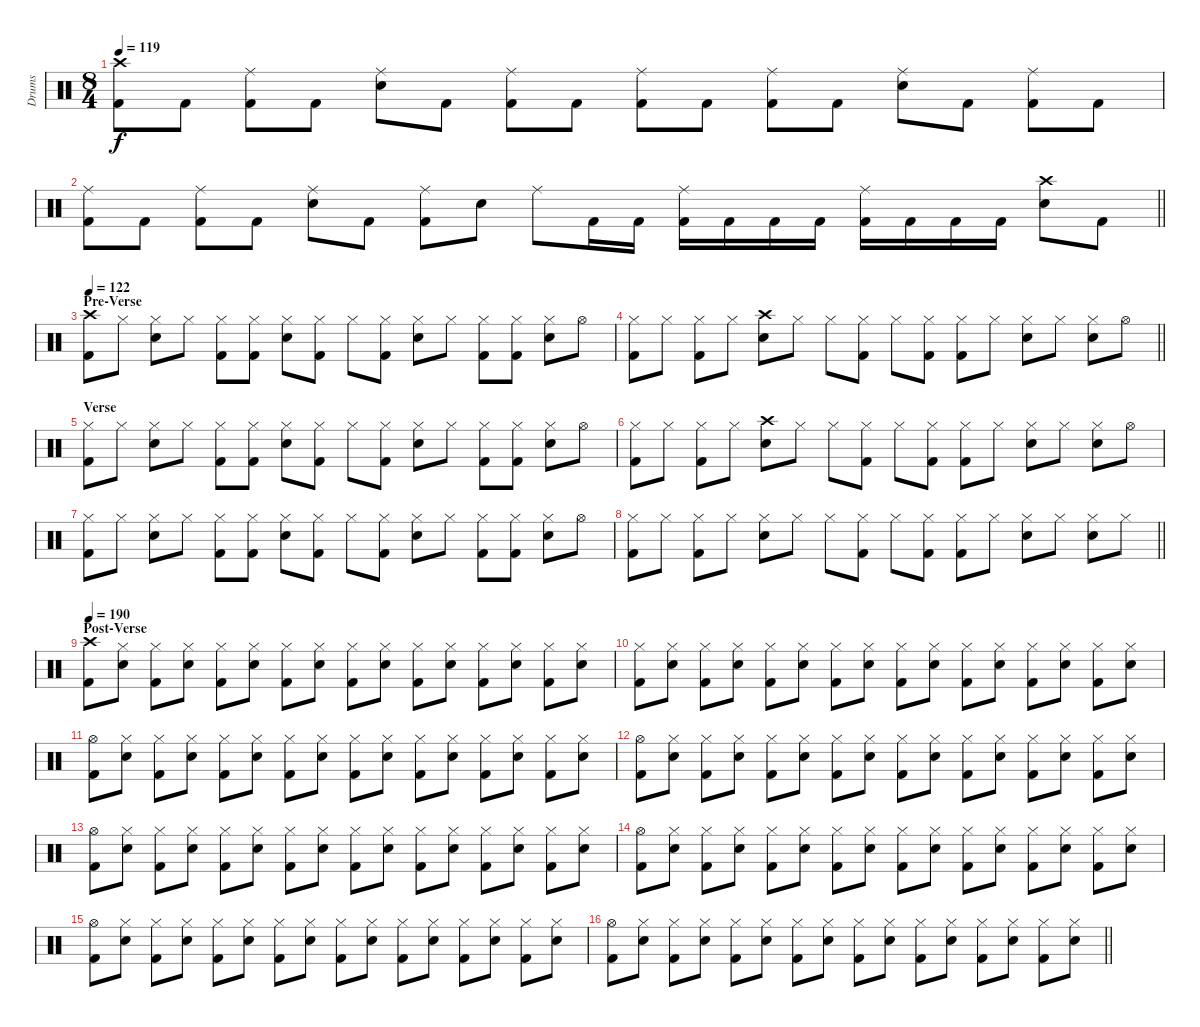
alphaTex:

\track ("Drums" "Drums") {instrument percussion}
\staff {score}
\articulation defaults
\ts (8 4)
\tempo 119
\clef neutral
\ks c
("Crash high (hit)" "Kick (hit) 2").8{dy f} "Kick (hit) 2".8 ("Ride (middle)" "Kick (hit) 2").8 "Kick (hit) 2".8 ("Ride (middle)" "Snare (hit) 2").8 "Kick (hit) 2".8 ("Ride (middle)" "Kick (hit) 2").8 "Kick (hit) 2".8 ("Ride (middle)" "Kick (hit) 2").8 "Kick (hit) 2".8 ("Ride (middle)" "Kick (hit) 2").8 "Kick (hit) 2".8 ("Ride (middle)" "Snare (hit) 2").8 "Kick (hit) 2".8 ("Ride (middle)" "Kick (hit) 2").8 "Kick (hit) 2".8 |
\barLineRight lightlight
("Ride (middle)" "Kick (hit) 2").8 "Kick (hit) 2".8 ("Ride (middle)" "Kick (hit) 2").8 "Kick (hit) 2".8 ("Ride (middle)" "Snare (hit) 2").8 "Kick (hit) 2".8 ("Ride (middle)" "Kick (hit) 2").8 "Snare (hit) 2".8 "Ride (middle)".8 "Kick (hit) 2".16 "Kick (hit) 2".16 ("Ride (middle)" "Kick (hit) 2").16 "Kick (hit) 2".16 "Kick (hit) 2".16 "Kick (hit) 2".16 ("Ride (middle)" "Kick (hit) 2").16 "Kick (hit) 2".16 "Kick (hit) 2".16 "Kick (hit) 2".16 ("Crash high (hit)" "Snare (hit) 2").8 "Kick (hit) 2".8 |
\section ("" "Pre-Verse")
\tempo 122
("Crash high (hit)" "Kick (hit) 2").8 "Hi-Hat (closed)".8 ("Hi-Hat (closed)" "Snare (hit) 2").8 "Hi-Hat (closed)".8 ("Hi-Hat (closed)" "Kick (hit) 2").8 ("Hi-Hat (closed)" "Kick (hit) 2").8 ("Hi-Hat (closed)" "Snare (hit) 2").8 ("Hi-Hat (closed)" "Kick (hit) 2").8 "Hi-Hat (closed)".8 ("Hi-Hat (closed)" "Kick (hit) 2").8 ("Hi-Hat (closed)" "Snare (hit) 2").8 "Hi-Hat (closed)".8 ("Hi-Hat (closed)" "Kick (hit) 2").8 ("Hi-Hat (closed)" "Kick (hit) 2").8 ("Hi-Hat (closed)" "Snare (hit) 2").8 "Hi-Hat (open)".8 |
\barLineRight lightlight
("Hi-Hat (closed)" "Kick (hit) 2").8 "Hi-Hat (closed)".8 ("Hi-Hat (closed)" "Kick (hit) 2").8 "Hi-Hat (closed)".8 ("Crash high (hit)" "Snare (hit) 2").8 "Hi-Hat (closed)".8 "Hi-Hat (closed)".8 ("Hi-Hat (closed)" "Kick (hit) 2").8 "Hi-Hat (closed)".8 ("Hi-Hat (closed)" "Kick (hit) 2").8 ("Hi-Hat (closed)" "Kick (hit) 2").8 "Hi-Hat (closed)".8 ("Hi-Hat (closed)" "Snare (hit) 2").8 "Hi-Hat (closed)".8 ("Hi-Hat (closed)" "Snare (hit) 2").8 "Hi-Hat (open)".8 |
\section ("" "Verse")
("Hi-Hat (closed)" "Kick (hit) 2").8 "Hi-Hat (closed)".8 ("Hi-Hat (closed)" "Snare (hit) 2").8 "Hi-Hat (closed)".8 ("Hi-Hat (closed)" "Kick (hit) 2").8 ("Hi-Hat (closed)" "Kick (hit) 2").8 ("Hi-Hat (closed)" "Snare (hit) 2").8 ("Hi-Hat (closed)" "Kick (hit) 2").8 "Hi-Hat (closed)".8 ("Hi-Hat (closed)" "Kick (hit) 2").8 ("Hi-Hat (closed)" "Snare (hit) 2").8 "Hi-Hat (closed)".8 ("Hi-Hat (closed)" "Kick (hit) 2").8 ("Hi-Hat (closed)" "Kick (hit) 2").8 ("Hi-Hat (closed)" "Snare (hit) 2").8 "Hi-Hat (open)".8 |
("Hi-Hat (closed)" "Kick (hit) 2").8 "Hi-Hat (closed)".8 ("Hi-Hat (closed)" "Kick (hit) 2").8 "Hi-Hat (closed)".8 ("Crash high (hit)" "Snare (hit) 2").8 "Hi-Hat (closed)".8 "Hi-Hat (closed)".8 ("Hi-Hat (closed)" "Kick (hit) 2").8 "Hi-Hat (closed)".8 ("Hi-Hat (closed)" "Kick (hit) 2").8 ("Hi-Hat (closed)" "Kick (hit) 2").8 "Hi-Hat (closed)".8 ("Hi-Hat (closed)" "Snare (hit) 2").8 "Hi-Hat (closed)".8 ("Hi-Hat (closed)" "Snare (hit) 2").8 "Hi-Hat (open)".8 |
("Hi-Hat (closed)" "Kick (hit) 2").8 "Hi-Hat (closed)".8 ("Hi-Hat (closed)" "Snare (hit) 2").8 "Hi-Hat (closed)".8 ("Hi-Hat (closed)" "Kick (hit) 2").8 ("Hi-Hat (closed)" "Kick (hit) 2").8 ("Hi-Hat (closed)" "Snare (hit) 2").8 ("Hi-Hat (closed)" "Kick (hit) 2").8 "Hi-Hat (closed)".8 ("Hi-Hat (closed)" "Kick (hit) 2").8 ("Hi-Hat (closed)" "Snare (hit) 2").8 "Hi-Hat (closed)".8 ("Hi-Hat (closed)" "Kick (hit) 2").8 ("Hi-Hat (closed)" "Kick (hit) 2").8 ("Hi-Hat (closed)" "Snare (hit) 2").8 "Hi-Hat (open)".8 |
\barLineRight lightlight
("Hi-Hat (closed)" "Kick (hit) 2").8 "Hi-Hat (closed)".8 ("Hi-Hat (closed)" "Kick (hit) 2").8 "Hi-Hat (closed)".8 ("Hi-Hat (closed)" "Snare (hit) 2").8 "Hi-Hat (closed)".8 "Hi-Hat (closed)".8 ("Hi-Hat (closed)" "Kick (hit) 2").8 "Hi-Hat (closed)".8 ("Hi-Hat (closed)" "Kick (hit) 2").8 ("Hi-Hat (closed)" "Kick (hit) 2").8 "Hi-Hat (closed)".8 ("Hi-Hat (closed)" "Snare (hit) 2").8 "Hi-Hat (closed)".8 ("Hi-Hat (closed)" "Snare (hit) 2").8 "Hi-Hat (closed)".8 |
\section ("" "Post-Verse")
\tempo 190
("Crash high (hit)" "Kick (hit) 2").8 ("Hi-Hat (closed)" "Snare (hit) 2").8 ("Hi-Hat (closed)" "Kick (hit) 2").8 ("Hi-Hat (closed)" "Snare (hit) 2").8 ("Hi-Hat (closed)" "Kick (hit) 2").8 ("Hi-Hat (closed)" "Snare (hit) 2").8 ("Hi-Hat (closed)" "Kick (hit) 2").8 ("Hi-Hat (closed)" "Snare (hit) 2").8 ("Hi-Hat (closed)" "Kick (hit) 2").8 ("Hi-Hat (closed)" "Snare (hit) 2").8 ("Hi-Hat (closed)" "Kick (hit) 2").8 ("Hi-Hat (closed)" "Snare (hit) 2").8 ("Hi-Hat (closed)" "Kick (hit) 2").8 ("Hi-Hat (closed)" "Snare (hit) 2").8 ("Hi-Hat (closed)" "Kick (hit) 2").8 ("Hi-Hat (closed)" "Snare (hit) 2").8 |
("Hi-Hat (closed)" "Kick (hit) 2").8 ("Hi-Hat (closed)" "Snare (hit) 2").8 ("Hi-Hat (closed)" "Kick (hit) 2").8 ("Hi-Hat (closed)" "Snare (hit) 2").8 ("Hi-Hat (closed)" "Kick (hit) 2").8 ("Hi-Hat (closed)" "Snare (hit) 2").8 ("Hi-Hat (closed)" "Kick (hit) 2").8 ("Hi-Hat (closed)" "Snare (hit) 2").8 ("Hi-Hat (closed)" "Kick (hit) 2").8 ("Hi-Hat (closed)" "Snare (hit) 2").8 ("Hi-Hat (closed)" "Kick (hit) 2").8 ("Hi-Hat (closed)" "Snare (hit) 2").8 ("Hi-Hat (closed)" "Kick (hit) 2").8 ("Hi-Hat (closed)" "Snare (hit) 2").8 ("Hi-Hat (closed)" "Kick (hit) 2").8 ("Hi-Hat (closed)" "Snare (hit) 2").8 |
("Hi-Hat (open)" "Kick (hit) 2").8 ("Hi-Hat (closed)" "Snare (hit) 2").8 ("Hi-Hat (closed)" "Kick (hit) 2").8 ("Hi-Hat (closed)" "Snare (hit) 2").8 ("Hi-Hat (closed)" "Kick (hit) 2").8 ("Hi-Hat (closed)" "Snare (hit) 2").8 ("Hi-Hat (closed)" "Kick (hit) 2").8 ("Hi-Hat (closed)" "Snare (hit) 2").8 ("Hi-Hat (closed)" "Kick (hit) 2").8 ("Hi-Hat (closed)" "Snare (hit) 2").8 ("Hi-Hat (closed)" "Kick (hit) 2").8 ("Hi-Hat (closed)" "Snare (hit) 2").8 ("Hi-Hat (closed)" "Kick (hit) 2").8 ("Hi-Hat (closed)" "Snare (hit) 2").8 ("Hi-Hat (closed)" "Kick (hit) 2").8 ("Hi-Hat (closed)" "Snare (hit) 2").8 |
("Hi-Hat (open)" "Kick (hit) 2").8 ("Hi-Hat (closed)" "Snare (hit) 2").8 ("Hi-Hat (closed)" "Kick (hit) 2").8 ("Hi-Hat (closed)" "Snare (hit) 2").8 ("Hi-Hat (closed)" "Kick (hit) 2").8 ("Hi-Hat (closed)" "Snare (hit) 2").8 ("Hi-Hat (closed)" "Kick (hit) 2").8 ("Hi-Hat (closed)" "Snare (hit) 2").8 ("Hi-Hat (closed)" "Kick (hit) 2").8 ("Hi-Hat (closed)" "Snare (hit) 2").8 ("Hi-Hat (closed)" "Kick (hit) 2").8 ("Hi-Hat (closed)" "Snare (hit) 2").8 ("Hi-Hat (closed)" "Kick (hit) 2").8 ("Hi-Hat (closed)" "Snare (hit) 2").8 ("Hi-Hat (closed)" "Kick (hit) 2").8 ("Hi-Hat (closed)" "Snare (hit) 2").8 |
("Hi-Hat (open)" "Kick (hit) 2").8 ("Hi-Hat (closed)" "Snare (hit) 2").8 ("Hi-Hat (closed)" "Kick (hit) 2").8 ("Hi-Hat (closed)" "Snare (hit) 2").8 ("Hi-Hat (closed)" "Kick (hit) 2").8 ("Hi-Hat (closed)" "Snare (hit) 2").8 ("Hi-Hat (closed)" "Kick (hit) 2").8 ("Hi-Hat (closed)" "Snare (hit) 2").8 ("Hi-Hat (closed)" "Kick (hit) 2").8 ("Hi-Hat (closed)" "Snare (hit) 2").8 ("Hi-Hat (closed)" "Kick (hit) 2").8 ("Hi-Hat (closed)" "Snare (hit) 2").8 ("Hi-Hat (closed)" "Kick (hit) 2").8 ("Hi-Hat (closed)" "Snare (hit) 2").8 ("Hi-Hat (closed)" "Kick (hit) 2").8 ("Hi-Hat (closed)" "Snare (hit) 2").8 |
("Hi-Hat (open)" "Kick (hit) 2").8 ("Hi-Hat (closed)" "Snare (hit) 2").8 ("Hi-Hat (closed)" "Kick (hit) 2").8 ("Hi-Hat (closed)" "Snare (hit) 2").8 ("Hi-Hat (closed)" "Kick (hit) 2").8 ("Hi-Hat (closed)" "Snare (hit) 2").8 ("Hi-Hat (closed)" "Kick (hit) 2").8 ("Hi-Hat (closed)" "Snare (hit) 2").8 ("Hi-Hat (closed)" "Kick (hit) 2").8 ("Hi-Hat (closed)" "Snare (hit) 2").8 ("Hi-Hat (closed)" "Kick (hit) 2").8 ("Hi-Hat (closed)" "Snare (hit) 2").8 ("Hi-Hat (closed)" "Kick (hit) 2").8 ("Hi-Hat (closed)" "Snare (hit) 2").8 ("Hi-Hat (closed)" "Kick (hit) 2").8 ("Hi-Hat (closed)" "Snare (hit) 2").8 |
("Hi-Hat (open)" "Kick (hit) 2").8 ("Hi-Hat (closed)" "Snare (hit) 2").8 ("Hi-Hat (closed)" "Kick (hit) 2").8 ("Hi-Hat (closed)" "Snare (hit) 2").8 ("Hi-Hat (closed)" "Kick (hit) 2").8 ("Hi-Hat (closed)" "Snare (hit) 2").8 ("Hi-Hat (closed)" "Kick (hit) 2").8 ("Hi-Hat (closed)" "Snare (hit) 2").8 ("Hi-Hat (closed)" "Kick (hit) 2").8 ("Hi-Hat (closed)" "Snare (hit) 2").8 ("Hi-Hat (closed)" "Kick (hit) 2").8 ("Hi-Hat (closed)" "Snare (hit) 2").8 ("Hi-Hat (closed)" "Kick (hit) 2").8 ("Hi-Hat (closed)" "Snare (hit) 2").8 ("Hi-Hat (closed)" "Kick (hit) 2").8 ("Hi-Hat (closed)" "Snare (hit) 2").8 |
\barLineRight lightlight
("Hi-Hat (open)" "Kick (hit) 2").8 ("Hi-Hat (closed)" "Snare (hit) 2").8 ("Hi-Hat (closed)" "Kick (hit) 2").8 ("Hi-Hat (closed)" "Snare (hit) 2").8 ("Hi-Hat (closed)" "Kick (hit) 2").8 ("Hi-Hat (closed)" "Snare (hit) 2").8 ("Hi-Hat (closed)" "Kick (hit) 2").8 ("Hi-Hat (closed)" "Snare (hit) 2").8 ("Hi-Hat (closed)" "Kick (hit) 2").8 ("Hi-Hat (closed)" "Snare (hit) 2").8 ("Hi-Hat (closed)" "Kick (hit) 2").8 ("Hi-Hat (closed)" "Snare (hit) 2").8 ("Hi-Hat (closed)" "Kick (hit) 2").8 ("Hi-Hat (closed)" "Snare (hit) 2").8 ("Hi-Hat (closed)" "Kick (hit) 2").8 ("Hi-Hat (closed)" "Snare (hit) 2").8
